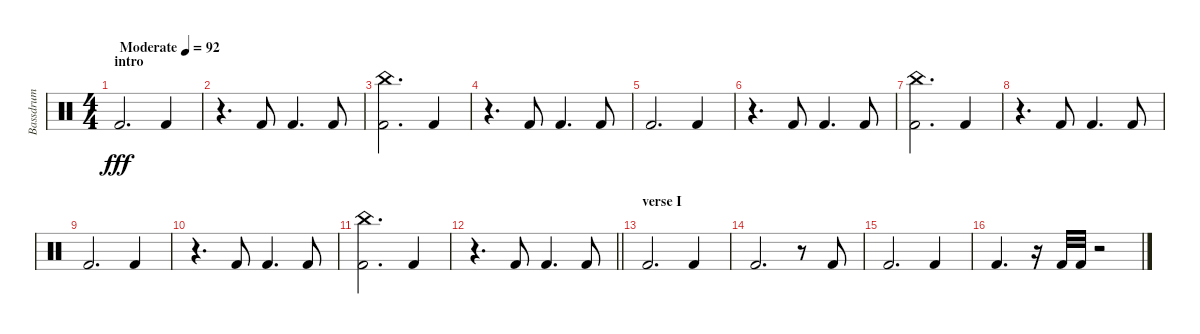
\track ("Bassdrum" "Bassdrum") {instrument percussion}
\staff {score}
\articulation defaults
\ts (4 4)
\section ("" "intro")
\tempo (92 "Moderate")
\clef neutral
\ks c "Kick (hit) 2".2{d dy fff volume 16} "Kick (hit) 2".4
|
r.4{d} "Kick (hit) 2".8 "Kick (hit) 2".4{d} "Kick (hit) 2".8 |
("China (hit)" "Kick (hit) 2").2{d} "Kick (hit) 2".4 |
r.4{d} "Kick (hit) 2".8 "Kick (hit) 2".4{d} "Kick (hit) 2".8 |
"Kick (hit) 2".2{d} "Kick (hit) 2".4 |
r.4{d} "Kick (hit) 2".8 "Kick (hit) 2".4{d} "Kick (hit) 2".8 |
("China (hit)" "Kick (hit) 2").2{d} "Kick (hit) 2".4 |
r.4{d} "Kick (hit) 2".8 "Kick (hit) 2".4{d} "Kick (hit) 2".8 |
"Kick (hit) 2".2{d} "Kick (hit) 2".4 |
r.4{d} "Kick (hit) 2".8 "Kick (hit) 2".4{d} "Kick (hit) 2".8 |
("China (hit)" "Kick (hit) 2").2{d} "Kick (hit) 2".4 |
\barLineRight lightlight
r.4{d} "Kick (hit) 2".8 "Kick (hit) 2".4{d} "Kick (hit) 2".8 |
\section ("" "verse I")
"Kick (hit) 2".2{d} "Kick (hit) 2".4 |
"Kick (hit) 2".2{d} r.8 "Kick (hit) 2".8 |
"Kick (hit) 2".2{d} "Kick (hit) 2".4 |
"Kick (hit) 2".4{d} r.16 "Kick (hit) 2".32 "Kick (hit) 2".32 r.2
